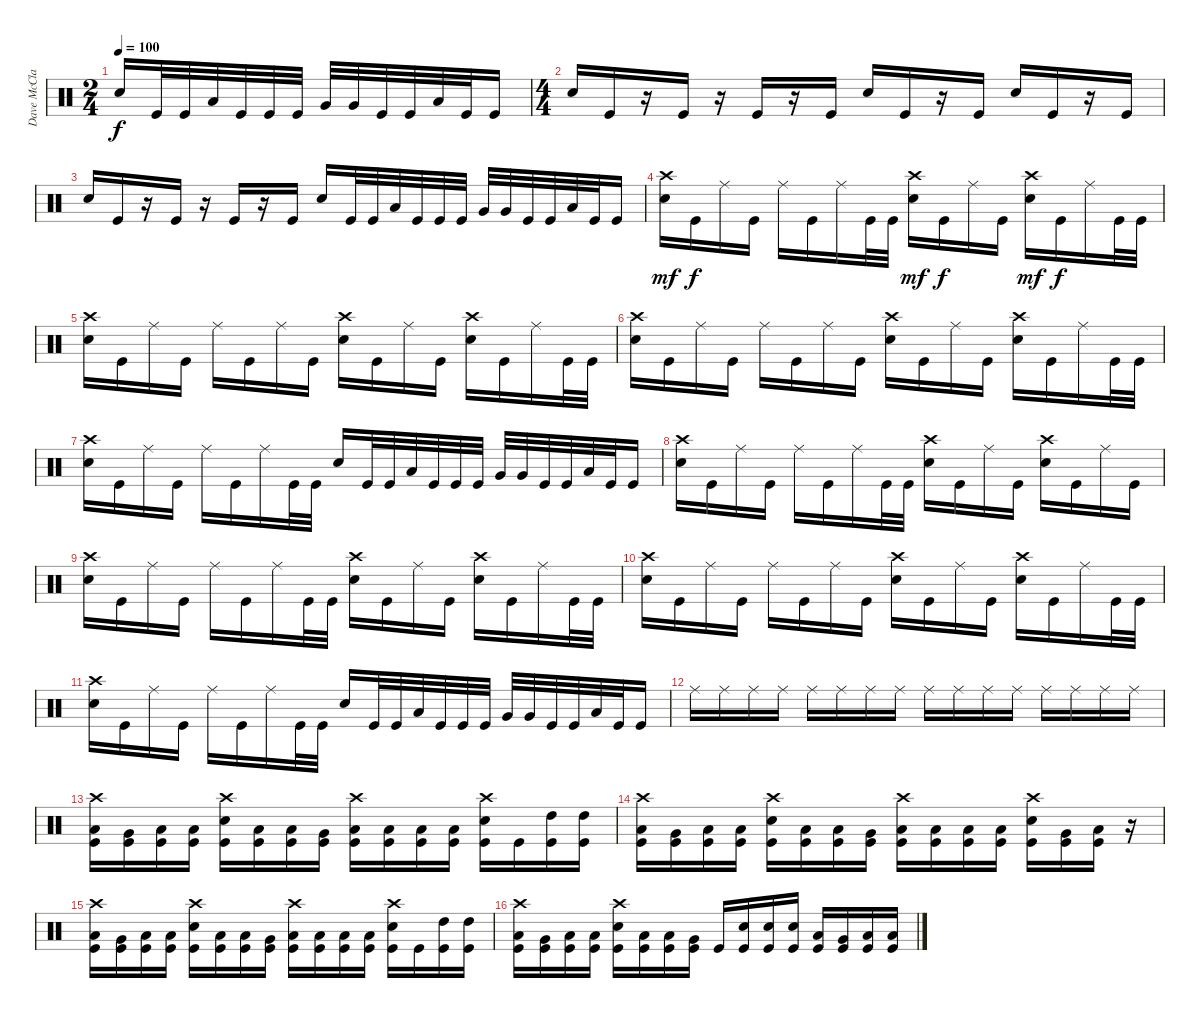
\track ("Dave McClain" "Dave McCla") {instrument percussion}
\staff {score}
\articulation defaults
\ts (2 4)
\tempo 100
\clef neutral
\ks c "Snare (hit) 2".16{dy f} "Kick (hit)".32 "Kick (hit)".32 "Low Tom (hit)".32 "Kick (hit)".32 "Kick (hit)".32 "Kick (hit)".32 "Very Low Tom (hit)".32 "Very Low Tom (hit)".32 "Kick (hit)".32 "Kick (hit)".32 "Low Floor Tom (hit)".32 "Kick (hit)".32 "Kick (hit)".16
|
\ts (4 4)
"Snare (hit) 2".16 "Kick (hit)".16 r.16 "Kick (hit)".16 r.16 "Kick (hit)".16 r.16 "Kick (hit)".16 "Snare (hit) 2".16 "Kick (hit)".16 r.16 "Kick (hit)".16 "Snare (hit) 2".16 "Kick (hit)".16 r.16 "Kick (hit)".16 |
"Snare (hit) 2".16 "Kick (hit)".16 r.16 "Kick (hit)".16 r.16 "Kick (hit)".16 r.16 "Kick (hit)".16 "Snare (hit) 2".16 "Kick (hit)".32 "Kick (hit)".32 "Low Tom (hit)".32 "Kick (hit)".32 "Kick (hit)".32 "Kick (hit)".32 "Very Low Tom (hit)".32 "Very Low Tom (hit)".32 "Kick (hit)".32 "Kick (hit)".32 "Low Floor Tom (hit)".32 "Kick (hit)".32 "Kick (hit)".16 |
("Crash high (hit)" "Snare (hit) 2").16{dy mf} "Kick (hit)".16{dy f} "Ride (middle)".16 "Kick (hit)".16 "Ride (middle)".16 "Kick (hit)".16 "Ride (middle)".16 "Kick (hit)".32 "Kick (hit)".32 ("Crash high (hit)" "Snare (hit) 2").16{dy mf} "Kick (hit)".16{dy f} "Ride (middle)".16 "Kick (hit)".16 ("Crash high (hit)" "Snare (hit) 2").16{dy mf} "Kick (hit)".16{dy f} "Ride (middle)".16 "Kick (hit)".32 "Kick (hit)".32 |
("Crash high (hit)" "Snare (hit) 2").16 "Kick (hit)".16 "Ride (middle)".16 "Kick (hit)".16 "Ride (middle)".16 "Kick (hit)".16 "Ride (middle)".16 "Kick (hit)".16 ("Crash high (hit)" "Snare (hit) 2").16 "Kick (hit)".16 "Ride (middle)".16 "Kick (hit)".16 ("Crash high (hit)" "Snare (hit) 2").16 "Kick (hit)".16 "Ride (middle)".16 "Kick (hit)".32 "Kick (hit)".32 |
("Crash high (hit)" "Snare (hit) 2").16 "Kick (hit)".16 "Ride (middle)".16 "Kick (hit)".16 "Ride (middle)".16 "Kick (hit)".16 "Ride (middle)".16 "Kick (hit)".16 ("Crash high (hit)" "Snare (hit) 2").16 "Kick (hit)".16 "Ride (middle)".16 "Kick (hit)".16 ("Crash high (hit)" "Snare (hit) 2").16 "Kick (hit)".16 "Ride (middle)".16 "Kick (hit)".32 "Kick (hit)".32 |
("Crash high (hit)" "Snare (hit) 2").16 "Kick (hit)".16 "Ride (middle)".16 "Kick (hit)".16 "Ride (middle)".16 "Kick (hit)".16 "Ride (middle)".16 "Kick (hit)".32 "Kick (hit)".32 "Snare (hit) 2".16 "Kick (hit)".32 "Kick (hit)".32 "Low Tom (hit)".32 "Kick (hit)".32 "Kick (hit)".32 "Kick (hit)".32 "Very Low Tom (hit)".32 "Very Low Tom (hit)".32 "Kick (hit)".32 "Kick (hit)".32 "Low Floor Tom (hit)".32 "Kick (hit)".32 "Kick (hit)".16 |
("Crash high (hit)" "Snare (hit) 2").16 "Kick (hit)".16 "Ride (middle)".16 "Kick (hit)".16 "Ride (middle)".16 "Kick (hit)".16 "Ride (middle)".16 "Kick (hit)".32 "Kick (hit)".32 ("Crash high (hit)" "Snare (hit) 2").16 "Kick (hit)".16 "Ride (middle)".16 "Kick (hit)".16 ("Crash high (hit)" "Snare (hit) 2").16 "Kick (hit)".16 "Ride (middle)".16 "Kick (hit)".16 |
("Crash high (hit)" "Snare (hit) 2").16 "Kick (hit)".16 "Ride (middle)".16 "Kick (hit)".16 "Ride (middle)".16 "Kick (hit)".16 "Ride (middle)".16 "Kick (hit)".32 "Kick (hit)".32 ("Crash high (hit)" "Snare (hit) 2").16 "Kick (hit)".16 "Ride (middle)".16 "Kick (hit)".16 ("Crash high (hit)" "Snare (hit) 2").16 "Kick (hit)".16 "Ride (middle)".16 "Kick (hit)".32 "Kick (hit)".32 |
("Crash high (hit)" "Snare (hit) 2").16 "Kick (hit)".16 "Ride (middle)".16 "Kick (hit)".16 "Ride (middle)".16 "Kick (hit)".16 "Ride (middle)".16 "Kick (hit)".16 ("Crash high (hit)" "Snare (hit) 2").16 "Kick (hit)".16 "Ride (middle)".16 "Kick (hit)".16 ("Crash high (hit)" "Snare (hit) 2").16 "Kick (hit)".16 "Ride (middle)".16 "Kick (hit)".32 "Kick (hit)".32 |
("Crash high (hit)" "Snare (hit) 2").16 "Kick (hit)".16 "Ride (middle)".16 "Kick (hit)".16 "Ride (middle)".16 "Kick (hit)".16 "Ride (middle)".16 "Kick (hit)".32 "Kick (hit)".32 "Snare (hit) 2".16 "Kick (hit)".32 "Kick (hit)".32 "Low Tom (hit)".32 "Kick (hit)".32 "Kick (hit)".32 "Kick (hit)".32 "Very Low Tom (hit)".32 "Very Low Tom (hit)".32 "Kick (hit)".32 "Kick (hit)".32 "Low Floor Tom (hit)".32 "Kick (hit)".32 "Kick (hit)".16 |
"Ride (middle)".16 "Ride (middle)".16 "Ride (middle)".16 "Ride (middle)".16 "Ride (middle)".16 "Ride (middle)".16 "Ride (middle)".16 "Ride (middle)".16 "Ride (middle)".16 "Ride (middle)".16 "Ride (middle)".16 "Ride (middle)".16 "Ride (middle)".16 "Ride (middle)".16 "Ride (middle)".16 "Ride (middle)".16 |
("Crash high (hit)" "Low Tom (hit)" "Kick (hit)").16 ("Very Low Tom (hit)" "Kick (hit)").16 ("Low Floor Tom (hit)" "Kick (hit)").16 ("Low Floor Tom (hit)" "Kick (hit)").16 ("Crash high (hit)" "Snare (hit) 2" "Kick (hit)").16 ("Low Floor Tom (hit)" "Kick (hit)").16 ("Low Tom (hit)" "Kick (hit)").16 ("Very Low Tom (hit)" "Kick (hit)").16 ("Crash high (hit)" "Low Floor Tom (hit)" "Kick (hit)").16 ("Low Floor Tom (hit)" "Kick (hit)").16 ("Low Floor Tom (hit)" "Kick (hit)").16 ("Low Floor Tom (hit)" "Kick (hit)").16 ("Crash high (hit)" "Snare (hit) 2" "Kick (hit)").16 "Kick (hit)".16 ("High Tom (hit)" "Kick (hit)").16 ("High Tom (hit)" "Kick (hit)").16 |
("Crash high (hit)" "Low Tom (hit)" "Kick (hit)").16 ("Very Low Tom (hit)" "Kick (hit)").16 ("Low Floor Tom (hit)" "Kick (hit)").16 ("Low Floor Tom (hit)" "Kick (hit)").16 ("Crash high (hit)" "Snare (hit) 2" "Kick (hit)").16 ("Low Floor Tom (hit)" "Kick (hit)").16 ("Low Tom (hit)" "Kick (hit)").16 ("Very Low Tom (hit)" "Kick (hit)").16 ("Crash high (hit)" "Low Floor Tom (hit)" "Kick (hit)").16 ("Low Floor Tom (hit)" "Kick (hit)").16 ("Low Floor Tom (hit)" "Kick (hit)").16 ("Low Floor Tom (hit)" "Kick (hit)").16 ("Crash high (hit)" "Snare (hit) 2" "Kick (hit)").16 ("Very Low Tom (hit)" "Kick (hit)").16 ("Low Floor Tom (hit)" "Kick (hit)").16 r.16 |
("Crash high (hit)" "Low Tom (hit)" "Kick (hit)").16 ("Very Low Tom (hit)" "Kick (hit)").16 ("Low Floor Tom (hit)" "Kick (hit)").16 ("Low Floor Tom (hit)" "Kick (hit)").16 ("Crash high (hit)" "Snare (hit) 2" "Kick (hit)").16 ("Low Floor Tom (hit)" "Kick (hit)").16 ("Low Tom (hit)" "Kick (hit)").16 ("Very Low Tom (hit)" "Kick (hit)").16 ("Crash high (hit)" "Low Floor Tom (hit)" "Kick (hit)").16 ("Low Floor Tom (hit)" "Kick (hit)").16 ("Low Floor Tom (hit)" "Kick (hit)").16 ("Low Floor Tom (hit)" "Kick (hit)").16 ("Crash high (hit)" "Snare (hit) 2" "Kick (hit)").16 "Kick (hit)".16 ("High Tom (hit)" "Kick (hit)").16 ("High Tom (hit)" "Kick (hit)").16 |
("Crash high (hit)" "Low Tom (hit)" "Kick (hit)").16 ("Very Low Tom (hit)" "Kick (hit)").16 ("Low Floor Tom (hit)" "Kick (hit)").16 ("Low Floor Tom (hit)" "Kick (hit)").16 ("Crash high (hit)" "Snare (hit) 2" "Kick (hit)").16 ("Low Floor Tom (hit)" "Kick (hit)").16 ("Low Tom (hit)" "Kick (hit)").16 ("Very Low Tom (hit)" "Kick (hit)").16 "Kick (hit)".16 ("Snare (hit) 2" "Kick (hit)").16 ("Snare (hit) 2" "Kick (hit)").16 ("Snare (hit) 2" "Kick (hit)").16 ("Low Tom (hit)" "Kick (hit)").16 ("Very Low Tom (hit)" "Kick (hit)").16 ("Low Floor Tom (hit)" "Kick (hit)").16 ("Low Floor Tom (hit)" "Kick (hit)").16
